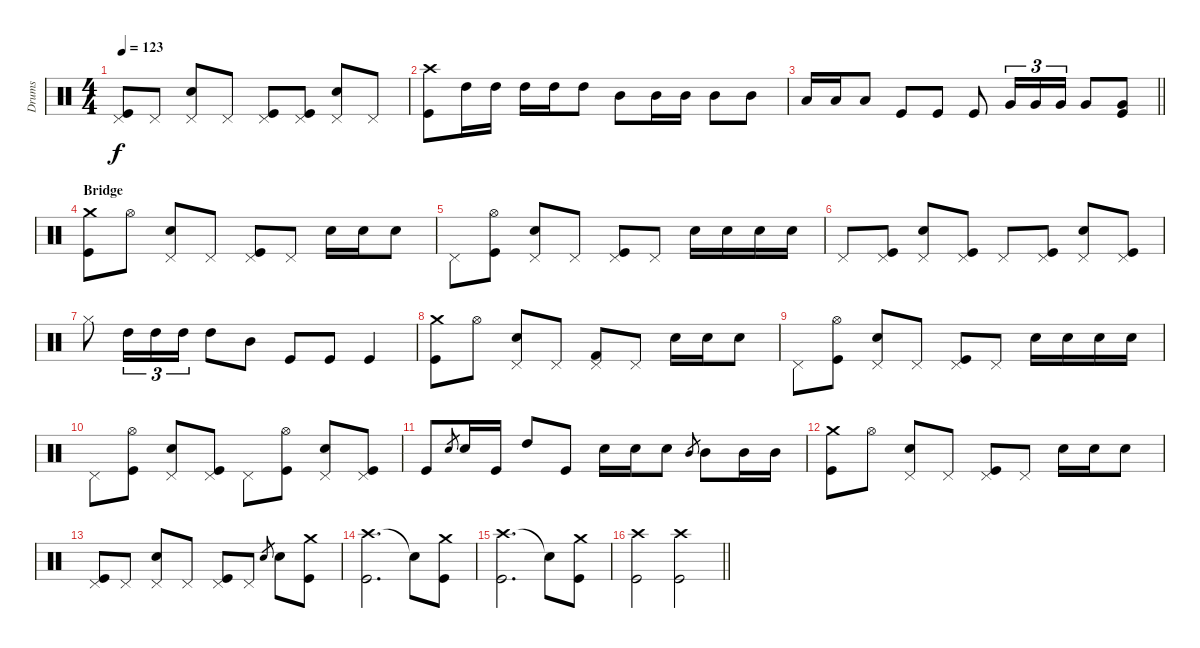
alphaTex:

\track ("Drums" "Drums") {instrument percussion}
\staff {score}
\articulation defaults
\ts (4 4)
\tempo 123
\clef neutral
\ks c
("Pedal Hi-Hat (hit)" "Kick (hit)").8{dy f} "Pedal Hi-Hat (hit)".8 ("Pedal Hi-Hat (hit)" "Electric Snare (hit)").8 "Pedal Hi-Hat (hit)".8 ("Pedal Hi-Hat (hit)" "Kick (hit)").8 ("Pedal Hi-Hat (hit)" "Kick (hit)").8 ("Pedal Hi-Hat (hit)" "Electric Snare (hit)").8 "Pedal Hi-Hat (hit)".8 |
("Crash high (hit)" "Kick (hit)").8 "High Tom (hit)".16 "High Tom (hit)".16 "High Tom (hit)".16 "High Tom (hit)".16 "High Tom (hit)".8 "Mid Tom (hit)".8 "Mid Tom (hit)".16 "Mid Tom (hit)".16 "Mid Tom (hit)".8 "Mid Tom (hit)".8 |
\barLineRight lightlight "Low Tom (hit)".16 "Low Tom (hit)".16 "Low Tom (hit)".8 "Kick (hit)".8 "Kick (hit)".8 "Kick (hit)".8 "Very Low Tom (hit)".16{tu (3 2)} "Very Low Tom (hit)".16{tu (3 2)} "Very Low Tom (hit)".16{tu (3 2)} "Very Low Tom (hit)".8
("Very Low Tom (hit)" "Kick (hit)").8 |
\section ("" "Bridge")
("Crash medium (hit)" "Kick (hit)").8 "Hi-Hat (open)".8 ("Pedal Hi-Hat (hit)" "Electric Snare (hit)").8 "Pedal Hi-Hat (hit)".8 ("Pedal Hi-Hat (hit)" "Kick (hit)").8 "Pedal Hi-Hat (hit)".8 "Electric Snare (hit)".16 "Electric Snare (hit)".16 "Electric Snare (hit)".8 |
"Pedal Hi-Hat (hit)".8 ("Hi-Hat (open)" "Kick (hit)").8 ("Pedal Hi-Hat (hit)" "Electric Snare (hit)").8 "Pedal Hi-Hat (hit)".8 ("Pedal Hi-Hat (hit)" "Kick (hit)").8 "Pedal Hi-Hat (hit)".8 "Electric Snare (hit)".16 "Electric Snare (hit)".16 "Electric Snare (hit)".16 "Electric Snare (hit)".16 |
"Pedal Hi-Hat (hit)".8 ("Pedal Hi-Hat (hit)" "Kick (hit)").8 ("Pedal Hi-Hat (hit)" "Electric Snare (hit)").8 ("Pedal Hi-Hat (hit)" "Kick (hit)").8 "Pedal Hi-Hat (hit)".8 ("Pedal Hi-Hat (hit)" "Kick (hit)").8 ("Pedal Hi-Hat (hit)" "Electric Snare (hit)").8 ("Pedal Hi-Hat (hit)" "Kick (hit)").8 |
"Hi-Hat (closed)".8 "High Tom (hit)".16{tu (3 2)} "High Tom (hit)".16{tu (3 2)} "High Tom (hit)".16{tu (3 2)} "High Tom (hit)".8 "Mid Tom (hit)".8 "Kick (hit)".8 "Kick (hit)".8 "Kick (hit)".4 |
("Crash medium (hit)" "Kick (hit)").8 "Hi-Hat (open)".8 ("Pedal Hi-Hat (hit)" "Electric Snare (hit)").8 "Pedal Hi-Hat (hit)".8 ("Pedal Hi-Hat (hit)" "Kick (hit) 2").8 "Pedal Hi-Hat (hit)".8 "Electric Snare (hit)".16 "Electric Snare (hit)".16 "Electric Snare (hit)".8 |
"Pedal Hi-Hat (hit)".8 ("Hi-Hat (open)" "Kick (hit)").8 ("Pedal Hi-Hat (hit)" "Electric Snare (hit)").8 "Pedal Hi-Hat (hit)".8 ("Pedal Hi-Hat (hit)" "Kick (hit)").8 "Pedal Hi-Hat (hit)".8 "Electric Snare (hit)".16 "Electric Snare (hit)".16 "Electric Snare (hit)".16 "Electric Snare (hit)".16 |
"Pedal Hi-Hat (hit)".8 ("Hi-Hat (open)" "Kick (hit)").8 ("Pedal Hi-Hat (hit)" "Electric Snare (hit)").8 ("Pedal Hi-Hat (hit)" "Kick (hit)").8 "Pedal Hi-Hat (hit)".8 ("Hi-Hat (open)" "Kick (hit)").8 ("Pedal Hi-Hat (hit)" "Electric Snare (hit)").8 ("Pedal Hi-Hat (hit)" "Kick (hit)").8 |
"Kick (hit)".8 "Electric Snare (hit)".8{gr} "Electric Snare (hit)".16 "Kick (hit)".16 "High Tom (hit)".8 "Kick (hit)".8 "Electric Snare (hit)".16 "Electric Snare (hit)".16 "Electric Snare (hit)".8 "Mid Tom (hit)".8{gr} "Mid Tom (hit)".8 "Mid Tom (hit)".16 "Mid Tom (hit)".16 |
("Crash medium (hit)" "Kick (hit)").8 "Hi-Hat (open)".8 ("Pedal Hi-Hat (hit)" "Electric Snare (hit)").8 "Pedal Hi-Hat (hit)".8 ("Pedal Hi-Hat (hit)" "Kick (hit)").8 "Pedal Hi-Hat (hit)".8 "Electric Snare (hit)".16 "Electric Snare (hit)".16 "Electric Snare (hit)".8 |
("Pedal Hi-Hat (hit)" "Kick (hit)").8 "Pedal Hi-Hat (hit)".8 ("Pedal Hi-Hat (hit)" "Electric Snare (hit)").8 "Pedal Hi-Hat (hit)".8 ("Pedal Hi-Hat (hit)" "Kick (hit)").8 "Pedal Hi-Hat (hit)".8 "Electric Snare (hit)".8{gr} "Electric Snare (hit)".8 ("Crash medium (hit)" "Kick (hit)").8 |
("Crash high (hit)" "Kick (hit)").2{d} "Snare (hit)"{t}.8 ("Crash medium (hit)" "Kick (hit)").8 |
("Crash high (hit)" "Kick (hit)").2{d} "Snare (hit)"{t}.8 ("Crash medium (hit)" "Kick (hit)").8 |
\barLineRight lightlight
("Crash high (hit)" "Kick (hit)").2 ("Crash high (hit)" "Kick (hit)").2
